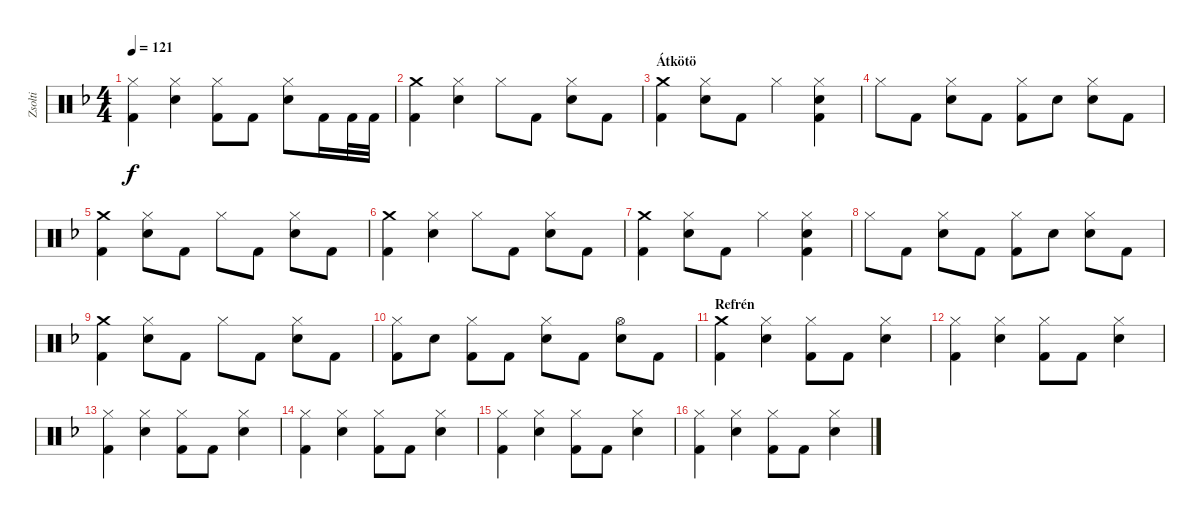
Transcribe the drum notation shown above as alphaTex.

\track ("Zsolti" "Zsolti") {instrument percussion}
\staff {score}
\articulation defaults
\ts (4 4)
\tempo 121
\clef neutral
\ks dminor
("Hi-Hat (closed)" "Kick (hit) 2").4{dy f} ("Hi-Hat (closed)" "Snare (hit) 2").4 ("Hi-Hat (closed)" "Kick (hit) 2").8 "Kick (hit) 2".8 ("Hi-Hat (closed)" "Snare (hit) 2").8 "Kick (hit) 2".16 "Kick (hit) 2".32 "Kick (hit) 2".32 |
("Crash medium (hit)" "Kick (hit) 2").4 ("Hi-Hat (closed)" "Snare (hit) 2").4 "Hi-Hat (closed)".8 "Kick (hit) 2".8 ("Hi-Hat (closed)" "Snare (hit) 2").8 "Kick (hit) 2".8 |
\section ("" "Átkötö")
("Crash medium (hit)" "Kick (hit) 2").4 ("Hi-Hat (closed)" "Snare (hit) 2").8 "Kick (hit) 2".8 "Hi-Hat (closed)".4 ("Hi-Hat (closed)" "Snare (hit) 2" "Kick (hit) 2").4 |
"Hi-Hat (closed)".8 "Kick (hit) 2".8 ("Hi-Hat (closed)" "Snare (hit) 2").8 "Kick (hit) 2".8 ("Hi-Hat (closed)" "Kick (hit) 2").8 "Snare (hit) 2".8 ("Hi-Hat (closed)" "Snare (hit) 2").8 "Kick (hit) 2".8 |
("Crash medium (hit)" "Kick (hit) 2").4 ("Hi-Hat (closed)" "Snare (hit) 2").8 "Kick (hit) 2".8 "Hi-Hat (closed)".8 "Kick (hit) 2".8 ("Hi-Hat (closed)" "Snare (hit) 2").8 "Kick (hit) 2".8 |
("Crash medium (hit)" "Kick (hit) 2").4 ("Hi-Hat (closed)" "Snare (hit) 2").4 "Hi-Hat (closed)".8 "Kick (hit) 2".8 ("Hi-Hat (closed)" "Snare (hit) 2").8 "Kick (hit) 2".8 |
("Crash medium (hit)" "Kick (hit) 2").4 ("Hi-Hat (closed)" "Snare (hit) 2").8 "Kick (hit) 2".8 "Hi-Hat (closed)".4 ("Hi-Hat (closed)" "Snare (hit) 2" "Kick (hit) 2").4 |
"Hi-Hat (closed)".8 "Kick (hit) 2".8 ("Hi-Hat (closed)" "Snare (hit) 2").8 "Kick (hit) 2".8 ("Hi-Hat (closed)" "Kick (hit) 2").8 "Snare (hit) 2".8 ("Hi-Hat (closed)" "Snare (hit) 2").8 "Kick (hit) 2".8 |
("Crash medium (hit)" "Kick (hit) 2").4 ("Hi-Hat (closed)" "Snare (hit) 2").8 "Kick (hit) 2".8 "Hi-Hat (closed)".8 "Kick (hit) 2".8 ("Hi-Hat (closed)" "Snare (hit) 2").8 "Kick (hit) 2".8 |
("Hi-Hat (closed)" "Kick (hit) 2").8 "Snare (hit) 2".8 ("Hi-Hat (closed)" "Kick (hit) 2").8 "Kick (hit) 2".8 ("Hi-Hat (closed)" "Snare (hit) 2").8 "Kick (hit) 2".8 ("Hi-Hat (open)" "Snare (hit) 2").8 "Kick (hit) 2".8 |
\section ("" "Refrén")
("Crash medium (hit)" "Kick (hit) 2").4 ("Hi-Hat (closed)" "Snare (hit) 2").4 ("Hi-Hat (closed)" "Kick (hit) 2").8 "Kick (hit) 2".8 ("Hi-Hat (closed)" "Snare (hit) 2").4 |
("Hi-Hat (closed)" "Kick (hit) 2").4 ("Hi-Hat (closed)" "Snare (hit) 2").4 ("Hi-Hat (closed)" "Kick (hit) 2").8 "Kick (hit) 2".8 ("Hi-Hat (closed)" "Snare (hit) 2").4 |
("Hi-Hat (closed)" "Kick (hit) 2").4 ("Hi-Hat (closed)" "Snare (hit) 2").4 ("Hi-Hat (closed)" "Kick (hit) 2").8 "Kick (hit) 2".8 ("Hi-Hat (closed)" "Snare (hit) 2").4 |
("Hi-Hat (closed)" "Kick (hit) 2").4 ("Hi-Hat (closed)" "Snare (hit) 2").4 ("Hi-Hat (closed)" "Kick (hit) 2").8 "Kick (hit) 2".8 ("Hi-Hat (closed)" "Snare (hit) 2").4 |
("Hi-Hat (closed)" "Kick (hit) 2").4 ("Hi-Hat (closed)" "Snare (hit) 2").4 ("Hi-Hat (closed)" "Kick (hit) 2").8 "Kick (hit) 2".8 ("Hi-Hat (closed)" "Snare (hit) 2").4 |
("Hi-Hat (closed)" "Kick (hit) 2").4 ("Hi-Hat (closed)" "Snare (hit) 2").4 ("Hi-Hat (closed)" "Kick (hit) 2").8 "Kick (hit) 2".8 ("Hi-Hat (closed)" "Snare (hit) 2").4
